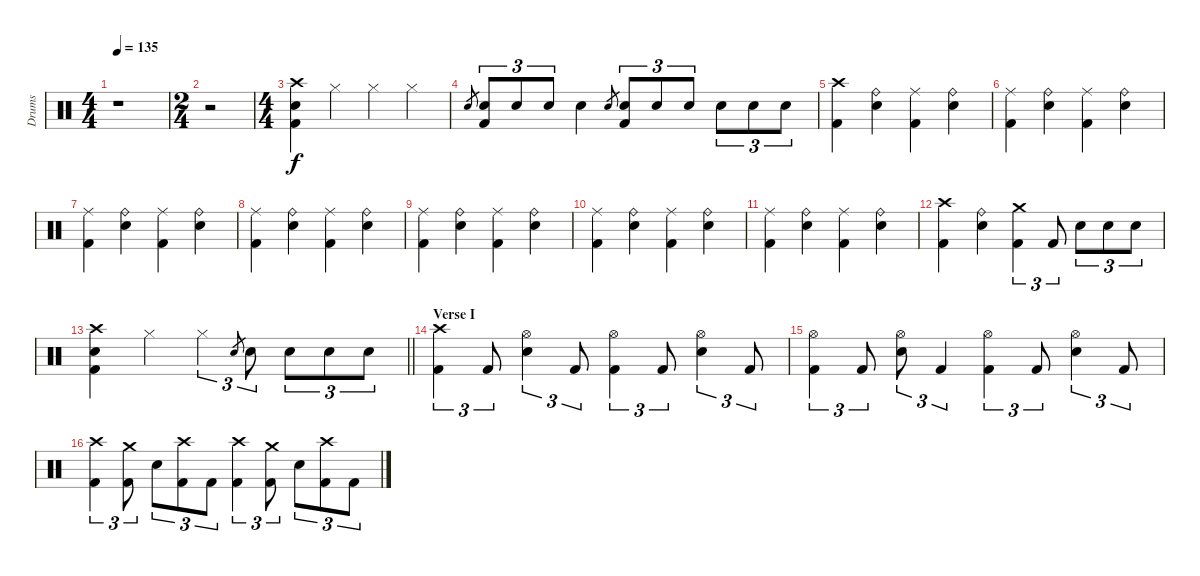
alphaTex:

\track ("Drums" "Drums") {instrument percussion}
\staff {score}
\articulation defaults
\ts (4 4)
\tempo 135
\clef neutral
\ks c
r.1{dy f} |
\ts (2 4)
r.2 |
\ts (4 4)
("Crash high (hit)" "Snare (hit) 2" "Kick (hit) 2").4 "Hi-Hat (closed)".4 "Hi-Hat (closed)".4 "Hi-Hat (closed)".4 |
"Snare (hit) 2".8{gr} ("Snare (hit) 2" "Kick (hit) 2").8{tu (3 2)} "Snare (hit) 2".8{tu (3 2)} "Snare (hit) 2".8{tu (3 2)} "Snare (hit) 2".4 "Snare (hit) 2".8{gr} ("Snare (hit) 2" "Kick (hit) 2").8{tu (3 2)} "Snare (hit) 2".8{tu (3 2)} "Snare (hit) 2".8{tu (3 2)} "Snare (hit) 2".8{tu (3 2)} "Snare (hit) 2".8{tu (3 2)} "Snare (hit) 2".8{tu (3 2)} |
("Crash high (hit)" "Kick (hit) 2").4 ("Ride (bell)" "Snare (hit) 2").4 ("Ride (middle)" "Kick (hit) 2").4 ("Ride (bell)" "Snare (hit) 2").4 |
("Ride (middle)" "Kick (hit) 2").4 ("Ride (bell)" "Snare (hit) 2").4 ("Ride (middle)" "Kick (hit) 2").4 ("Ride (bell)" "Snare (hit) 2").4 |
("Ride (middle)" "Kick (hit) 2").4 ("Ride (bell)" "Snare (hit) 2").4 ("Ride (middle)" "Kick (hit) 2").4 ("Ride (bell)" "Snare (hit) 2").4 |
("Ride (middle)" "Kick (hit) 2").4 ("Ride (bell)" "Snare (hit) 2").4 ("Ride (middle)" "Kick (hit) 2").4 ("Ride (bell)" "Snare (hit) 2").4 |
("Ride (middle)" "Kick (hit) 2").4 ("Ride (bell)" "Snare (hit) 2").4 ("Ride (middle)" "Kick (hit) 2").4 ("Ride (bell)" "Snare (hit) 2").4 |
("Ride (middle)" "Kick (hit) 2").4 ("Ride (bell)" "Snare (hit) 2").4 ("Ride (middle)" "Kick (hit) 2").4 ("Ride (bell)" "Snare (hit) 2").4 |
("Ride (middle)" "Kick (hit) 2").4 ("Ride (bell)" "Snare (hit) 2").4 ("Ride (middle)" "Kick (hit) 2").4 ("Ride (bell)" "Snare (hit) 2").4 |
("Crash high (hit)" "Kick (hit) 2").4 ("Ride (bell)" "Snare (hit) 2").4 ("Crash medium (hit)" "Kick (hit) 2").4{tu (3 2)} "Kick (hit) 2".8{tu (3 2)} "Snare (hit) 2".8{tu (3 2)} "Snare (hit) 2".8{tu (3 2)} "Snare (hit) 2".8{tu (3 2)} |
\barLineRight lightlight
("Crash high (hit)" "Snare (hit) 2" "Kick (hit) 2").4 "Hi-Hat (closed)".4 "Hi-Hat (closed)".4{tu (3 2)} "Snare (hit) 2".8{gr} "Snare (hit) 2".8{tu (3 2)} "Snare (hit) 2".8{tu (3 2)} "Snare (hit) 2".8{tu (3 2)} "Snare (hit) 2".8{tu (3 2)} |
\section ("" "Verse I")
("Crash high (hit)" "Kick (hit) 2").4{tu (3 2)} "Kick (hit) 2".8{tu (3 2)} ("Hi-Hat (open)" "Snare (hit) 2").4{tu (3 2)} "Kick (hit) 2".8{tu (3 2)} ("Hi-Hat (open)" "Kick (hit) 2").4{tu (3 2)} "Kick (hit) 2".8{tu (3 2)} ("Hi-Hat (open)" "Snare (hit) 2").4{tu (3 2)} "Kick (hit) 2".8{tu (3 2)} |
("Hi-Hat (open)" "Kick (hit) 2").4{tu (3 2)} "Kick (hit) 2".8{tu (3 2)} ("Hi-Hat (open)" "Snare (hit) 2").8{tu (3 2)} "Kick (hit) 2".4{tu (3 2)} ("Hi-Hat (open)" "Kick (hit) 2").4{tu (3 2)} "Kick (hit) 2".8{tu (3 2)} ("Hi-Hat (open)" "Snare (hit) 2").4{tu (3 2)} "Kick (hit) 2".8{tu (3 2)} |
("Crash high (hit)" "Kick (hit) 2").4{tu (3 2)} ("Crash medium (hit)" "Kick (hit) 2").8{tu (3 2)} "Snare (hit) 2".8{tu (3 2)} ("Crash high (hit)" "Kick (hit) 2").8{tu (3 2)} "Kick (hit) 2".8{tu (3 2)} ("Crash high (hit)" "Kick (hit) 2").4{tu (3 2)} ("Crash medium (hit)" "Kick (hit) 2").8{tu (3 2)} "Snare (hit) 2".8{tu (3 2)} ("Crash high (hit)" "Kick (hit) 2").8{tu (3 2)} "Kick (hit) 2".8{tu (3 2)}
